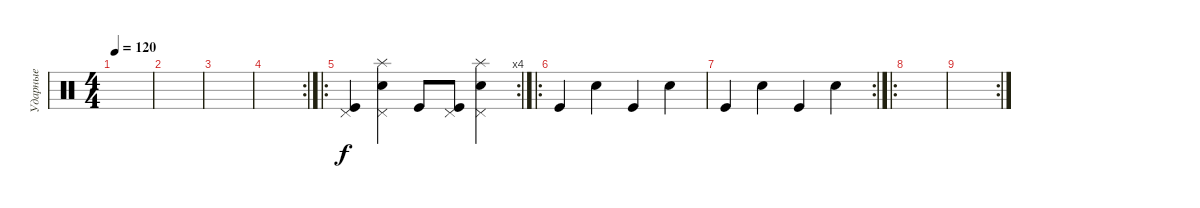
\track ("Ударные" "Ударные") {instrument percussion}
\staff {score}
\articulation defaults
\ts (4 4)
\tempo 120
\clef neutral
\ks c
|
|
|
\rc 2
|
\ro
\rc 4
("Kick (hit)" "Pedal Hi-Hat (hit)").4 ("Electric Snare (hit)" "Splash (hit)" "Pedal Hi-Hat (hit)").4 "Kick (hit)".8 ("Kick (hit)" "Pedal Hi-Hat (hit)").8 ("Electric Snare (hit)" "Splash (hit)" "Pedal Hi-Hat (hit)").4 |
\ro "Kick (hit)".4 "Electric Snare (hit)".4 "Kick (hit)".4 "Electric Snare (hit)".4
|
\rc 2 "Kick (hit)".4 "Electric Snare (hit)".4 "Kick (hit)".4 "Electric Snare (hit)".4
|
\ro
|
\rc 2
